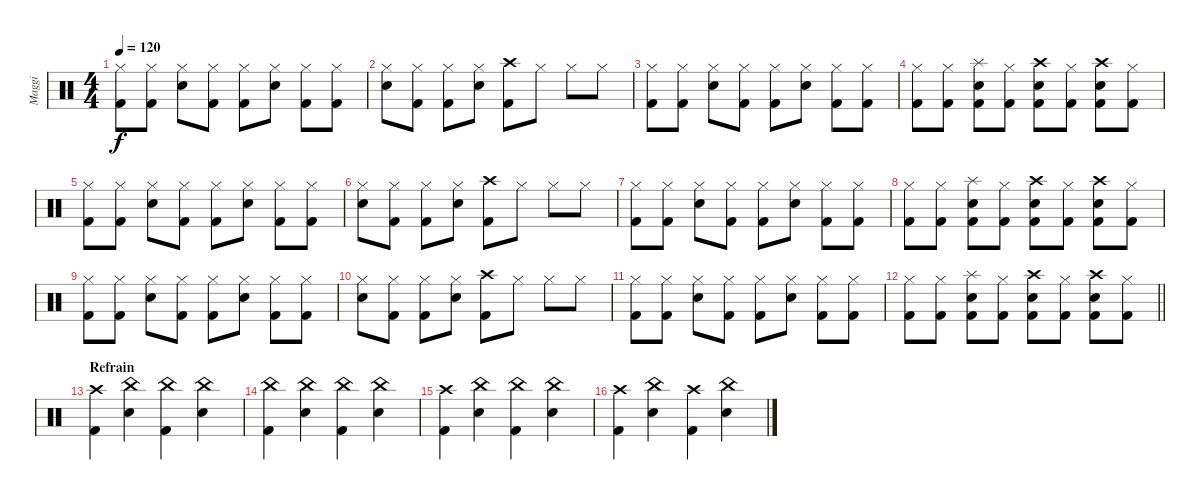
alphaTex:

\track ("Maggi" "Maggi") {instrument percussion}
\staff {score}
\articulation defaults
\ts (4 4)
\tempo 120
\clef neutral
\ks c
("Hi-Hat (closed)" "Kick (hit) 2").8{dy f} ("Hi-Hat (closed)" "Kick (hit) 2").8 ("Hi-Hat (closed)" "Snare (hit) 2").8 ("Hi-Hat (closed)" "Kick (hit) 2").8 ("Hi-Hat (closed)" "Kick (hit) 2").8 ("Hi-Hat (closed)" "Snare (hit) 2").8 ("Hi-Hat (closed)" "Kick (hit) 2").8 ("Hi-Hat (closed)" "Kick (hit) 2").8 |
("Hi-Hat (closed)" "Snare (hit) 2").8 ("Hi-Hat (closed)" "Kick (hit) 2").8 ("Hi-Hat (closed)" "Kick (hit) 2").8 ("Hi-Hat (closed)" "Snare (hit) 2").8 ("Crash high (hit)" "Kick (hit) 2").8 "Hi-Hat (closed)".8 "Hi-Hat (closed)".8 "Hi-Hat (closed)".8 |
("Hi-Hat (closed)" "Kick (hit) 2").8 ("Hi-Hat (closed)" "Kick (hit) 2").8 ("Hi-Hat (closed)" "Snare (hit) 2").8 ("Hi-Hat (closed)" "Kick (hit) 2").8 ("Hi-Hat (closed)" "Kick (hit) 2").8 ("Hi-Hat (closed)" "Snare (hit) 2").8 ("Hi-Hat (closed)" "Kick (hit) 2").8 ("Hi-Hat (closed)" "Kick (hit) 2").8 |
("Hi-Hat (closed)" "Kick (hit) 2").8 ("Hi-Hat (closed)" "Kick (hit) 2").8 ("Splash (hit)" "Snare (hit) 2" "Kick (hit) 2").8 ("Hi-Hat (closed)" "Kick (hit) 2").8 ("Crash high (hit)" "Snare (hit) 2" "Kick (hit) 2").8 ("Hi-Hat (closed)" "Kick (hit) 2").8 ("Crash high (hit)" "Snare (hit) 2" "Kick (hit) 2").8 ("Hi-Hat (closed)" "Kick (hit) 2").8 |
("Hi-Hat (closed)" "Kick (hit) 2").8 ("Hi-Hat (closed)" "Kick (hit) 2").8 ("Hi-Hat (closed)" "Snare (hit) 2").8 ("Hi-Hat (closed)" "Kick (hit) 2").8 ("Hi-Hat (closed)" "Kick (hit) 2").8 ("Hi-Hat (closed)" "Snare (hit) 2").8 ("Hi-Hat (closed)" "Kick (hit) 2").8 ("Hi-Hat (closed)" "Kick (hit) 2").8 |
("Hi-Hat (closed)" "Snare (hit) 2").8 ("Hi-Hat (closed)" "Kick (hit) 2").8 ("Hi-Hat (closed)" "Kick (hit) 2").8 ("Hi-Hat (closed)" "Snare (hit) 2").8 ("Crash high (hit)" "Kick (hit) 2").8 "Hi-Hat (closed)".8 "Hi-Hat (closed)".8 "Hi-Hat (closed)".8 |
("Hi-Hat (closed)" "Kick (hit) 2").8 ("Hi-Hat (closed)" "Kick (hit) 2").8 ("Hi-Hat (closed)" "Snare (hit) 2").8 ("Hi-Hat (closed)" "Kick (hit) 2").8 ("Hi-Hat (closed)" "Kick (hit) 2").8 ("Hi-Hat (closed)" "Snare (hit) 2").8 ("Hi-Hat (closed)" "Kick (hit) 2").8 ("Hi-Hat (closed)" "Kick (hit) 2").8 |
("Hi-Hat (closed)" "Kick (hit) 2").8 ("Hi-Hat (closed)" "Kick (hit) 2").8 ("Splash (hit)" "Snare (hit) 2" "Kick (hit) 2").8 ("Hi-Hat (closed)" "Kick (hit) 2").8 ("Crash high (hit)" "Snare (hit) 2" "Kick (hit) 2").8 ("Hi-Hat (closed)" "Kick (hit) 2").8 ("Crash high (hit)" "Snare (hit) 2" "Kick (hit) 2").8 ("Hi-Hat (closed)" "Kick (hit) 2").8 |
("Hi-Hat (closed)" "Kick (hit) 2").8 ("Hi-Hat (closed)" "Kick (hit) 2").8 ("Hi-Hat (closed)" "Snare (hit) 2").8 ("Hi-Hat (closed)" "Kick (hit) 2").8 ("Hi-Hat (closed)" "Kick (hit) 2").8 ("Hi-Hat (closed)" "Snare (hit) 2").8 ("Hi-Hat (closed)" "Kick (hit) 2").8 ("Hi-Hat (closed)" "Kick (hit) 2").8 |
("Hi-Hat (closed)" "Snare (hit) 2").8 ("Hi-Hat (closed)" "Kick (hit) 2").8 ("Hi-Hat (closed)" "Kick (hit) 2").8 ("Hi-Hat (closed)" "Snare (hit) 2").8 ("Crash high (hit)" "Kick (hit) 2").8 "Hi-Hat (closed)".8 "Hi-Hat (closed)".8 "Hi-Hat (closed)".8 |
("Hi-Hat (closed)" "Kick (hit) 2").8 ("Hi-Hat (closed)" "Kick (hit) 2").8 ("Hi-Hat (closed)" "Snare (hit) 2").8 ("Hi-Hat (closed)" "Kick (hit) 2").8 ("Hi-Hat (closed)" "Kick (hit) 2").8 ("Hi-Hat (closed)" "Snare (hit) 2").8 ("Hi-Hat (closed)" "Kick (hit) 2").8 ("Hi-Hat (closed)" "Kick (hit) 2").8 |
\barLineRight lightlight
("Hi-Hat (closed)" "Kick (hit) 2").8 ("Hi-Hat (closed)" "Kick (hit) 2").8 ("Splash (hit)" "Snare (hit) 2" "Kick (hit) 2").8 ("Hi-Hat (closed)" "Kick (hit) 2").8 ("Crash high (hit)" "Snare (hit) 2" "Kick (hit) 2").8 ("Hi-Hat (closed)" "Kick (hit) 2").8 ("Crash high (hit)" "Snare (hit) 2" "Kick (hit) 2").8 ("Hi-Hat (closed)" "Kick (hit) 2").8 |
\section ("" "Refrain")
("Crash high (hit)" "Kick (hit) 2").4 ("China (hit)" "Snare (hit) 2").4 ("China (hit)" "Kick (hit) 2").4 ("China (hit)" "Snare (hit) 2").4 |
("China (hit)" "Kick (hit) 2").4 ("China (hit)" "Snare (hit) 2").4 ("China (hit)" "Kick (hit) 2").4 ("China (hit)" "Snare (hit) 2").4 |
("Crash high (hit)" "Kick (hit) 2").4 ("China (hit)" "Snare (hit) 2").4 ("China (hit)" "Kick (hit) 2").4 ("China (hit)" "Snare (hit) 2").4 |
("Crash high (hit)" "Kick (hit) 2").4 ("China (hit)" "Snare (hit) 2").4 ("Crash high (hit)" "Kick (hit) 2").4 ("China (hit)" "Snare (hit) 2").4
